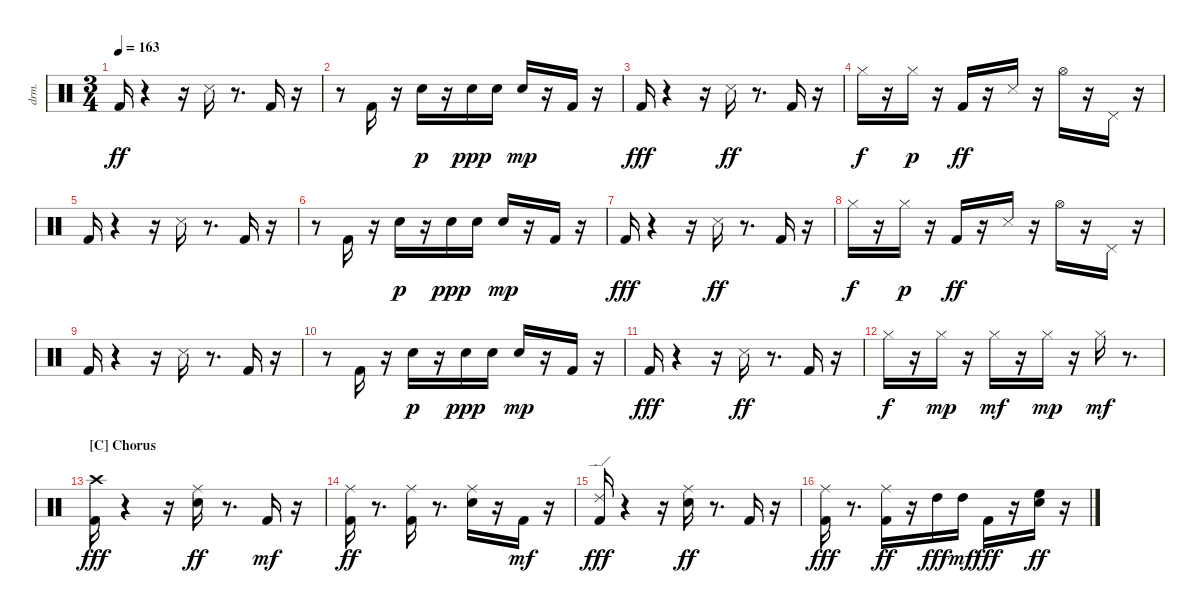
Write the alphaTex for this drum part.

\bracketExtendMode nobrackets
\track ("EZdrummer 3" "drm.") {instrument percussion}
\staff {score}
\articulation defaults
\ts (3 4)
\tempo 163
\clef neutral
\ks aminor "Kick (hit) 2".16{dy ff beam Up}
r.4{beam Down} r.16{beam Down} "Snare (side stick) 3"{acc #}.16{beam Down} r.8{d beam Down} "Kick (hit) 2".16{beam Up} r.16{beam Down} |
r.8{beam Down} "Kick (hit) 2".16{beam Up} r.16{beam Down} "Snare (hit) 2".16{dy p beam Down} r.16{beam Down} "Snare (hit) 2".16{dy ppp beam Down} "Snare (hit) 2".16{beam Down} "Snare (hit) 2".16{dy mp beam Up} r.16{beam Up} "Kick (hit) 2".16{beam Up} r.16{beam Down} |
"Kick (hit) 2".16{dy fff beam Up} r.4{beam Down} r.16{beam Down} "Snare (side stick) 3"{acc #}.16{dy ff beam Down} r.8{d beam Down} "Kick (hit) 2".16{beam Up} r.16{beam Down} |
"Hi-Hat (closed)"{acc #}.16{dy f beam Down} r.16{beam Down} "Hi-Hat (closed)"{acc #}.16{dy p beam Down} r.16{beam Down} "Kick (hit) 2".16{dy ff beam Up} r.16{beam Up} "Snare (side stick) 3"{acc #}.16{beam Up} r.16{beam Down} "Hi-Hat (open)"{acc #}.16{beam Down} r.16{beam Down} "Pedal Hi-Hat (hit)"{acc #}.16{beam Down} r.16{beam Down} |
"Kick (hit) 2".16{beam Up} r.4{beam Down} r.16{beam Down} "Snare (side stick) 3"{acc #}.16{beam Down} r.8{d beam Down} "Kick (hit) 2".16{beam Up} r.16{beam Down} |
r.8{beam Down} "Kick (hit) 2".16{beam Up} r.16{beam Down} "Snare (hit) 2".16{dy p beam Down} r.16{beam Down} "Snare (hit) 2".16{dy ppp beam Down} "Snare (hit) 2".16{beam Down} "Snare (hit) 2".16{dy mp beam Up} r.16{beam Up} "Kick (hit) 2".16{beam Up} r.16{beam Down} |
"Kick (hit) 2".16{dy fff beam Up} r.4{beam Down} r.16{beam Down} "Snare (side stick) 3"{acc #}.16{dy ff beam Down} r.8{d beam Down} "Kick (hit) 2".16{beam Up} r.16{beam Down} |
"Hi-Hat (closed)"{acc #}.16{dy f beam Down} r.16{beam Down} "Hi-Hat (closed)"{acc #}.16{dy p beam Down} r.16{beam Down} "Kick (hit) 2".16{dy ff beam Up} r.16{beam Up} "Snare (side stick) 3"{acc #}.16{beam Up} r.16{beam Down} "Hi-Hat (open)"{acc #}.16{beam Down} r.16{beam Down} "Pedal Hi-Hat (hit)"{acc #}.16{beam Down} r.16{beam Down} |
"Kick (hit) 2".16{beam Up} r.4{beam Down} r.16{beam Down} "Snare (side stick) 3"{acc #}.16{beam Down} r.8{d beam Down} "Kick (hit) 2".16{beam Up} r.16{beam Down} |
r.8{beam Down} "Kick (hit) 2".16{beam Up} r.16{beam Down} "Snare (hit) 2".16{dy p beam Down} r.16{beam Down} "Snare (hit) 2".16{dy ppp beam Down} "Snare (hit) 2".16{beam Down} "Snare (hit) 2".16{dy mp beam Up} r.16{beam Up} "Kick (hit) 2".16{beam Up} r.16{beam Down} |
"Kick (hit) 2".16{dy fff beam Up} r.4{beam Down} r.16{beam Down} "Snare (side stick) 3"{acc #}.16{dy ff beam Down} r.8{d beam Down} "Kick (hit) 2".16{beam Up} r.16{beam Down} |
"Hi-Hat (closed)"{acc #}.16{dy f beam Down} r.16{beam Down} "Hi-Hat (closed)"{acc #}.16{dy mp beam Down} r.16{beam Down} "Hi-Hat (closed)"{acc #}.16{dy mf beam Down} r.16{beam Down} "Hi-Hat (closed)"{acc #}.16{dy mp beam Down} r.16{beam Down} "Hi-Hat (closed)"{acc #}.16{dy mf beam Down} r.8{d beam Down} |
\section ("C" "Chorus")
("Kick (hit) 2" "Crash high (hit)"{acc #}).16{dy fff beam Down} r.4{beam Down} r.16{beam Down} ("Snare (hit) 2" "Ride (middle)"{acc #}).16{dy ff beam Down} r.8{d beam Down} "Kick (hit) 2".16{dy mf beam Up} r.16{beam Down} |
("Kick (hit) 2" "Ride (middle)"{acc #}).16{dy ff beam Down} r.8{d beam Down} ("Kick (hit) 2" "Ride (middle)"{acc #}).16{beam Down} r.8{d beam Down} ("Snare (hit) 2" "Ride (middle)"{acc #}).16{beam Down} r.16{beam Down} "Kick (hit) 2".16{dy mf beam Down} r.16{beam Down} |
("Kick (hit) 2" "Ride (edge) 2").16{dy fff beam Up} r.4{beam Down} r.16{beam Down} ("Snare (hit) 2" "Ride (middle)"{acc #}).16{dy ff beam Down} r.8{d beam Down} "Kick (hit) 2".16{beam Up} r.16{beam Down} |
("Kick (hit) 2" "Ride (middle)"{acc #}).16{dy fff beam Down} r.8{d beam Down} ("Kick (hit) 2" "Ride (middle)"{acc #}).16{dy ff beam Down} r.16{beam Down} "High Tom (hit)".16{dy fff beam Down} "High Tom (hit)".16{dy mf beam Down} "Kick (hit) 2".16{dy fff beam Down} r.16{beam Down} ("Snare (hit) 2" "High Floor Tom (hit)").16{dy ff beam Down} r.16{beam Down}
